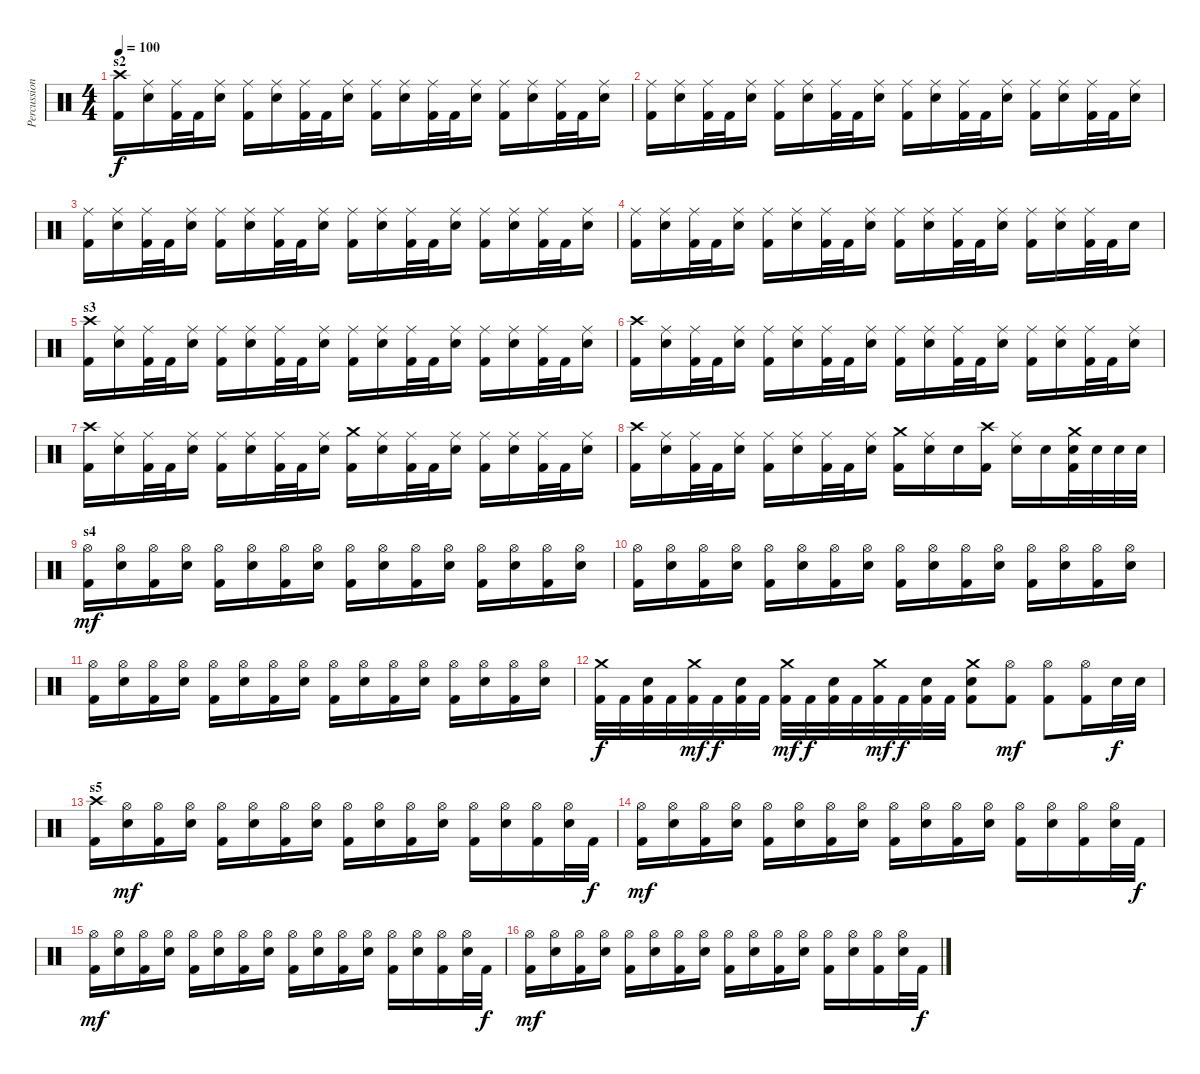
\track ("Percussion" "Percussion") {instrument percussion}
\staff {score}
\articulation defaults
\ts (4 4)
\section ("" "s2")
\tempo 100
\clef neutral
\ks c
("Crash high (hit)" "Kick (hit) 2").16{dy f} ("Ride (middle)" "Electric Snare (hit)").16 ("Ride (middle)" "Kick (hit) 2").32 "Kick (hit) 2".32 ("Ride (middle)" "Electric Snare (hit)").16 ("Ride (middle)" "Kick (hit) 2").16 ("Ride (middle)" "Electric Snare (hit)").16 ("Ride (middle)" "Kick (hit) 2").32 "Kick (hit) 2".32 ("Ride (middle)" "Electric Snare (hit)").16 ("Ride (middle)" "Kick (hit) 2").16 ("Ride (middle)" "Electric Snare (hit)").16 ("Ride (middle)" "Kick (hit) 2").32 "Kick (hit) 2".32 ("Ride (middle)" "Electric Snare (hit)").16 ("Ride (middle)" "Kick (hit) 2").16 ("Ride (middle)" "Electric Snare (hit)").16 ("Ride (middle)" "Kick (hit) 2").32 "Kick (hit) 2".32 ("Ride (middle)" "Electric Snare (hit)").16 |
("Ride (middle)" "Kick (hit) 2").16 ("Ride (middle)" "Electric Snare (hit)").16 ("Ride (middle)" "Kick (hit) 2").32 "Kick (hit) 2".32 ("Ride (middle)" "Electric Snare (hit)").16 ("Ride (middle)" "Kick (hit) 2").16 ("Ride (middle)" "Electric Snare (hit)").16 ("Ride (middle)" "Kick (hit) 2").32 "Kick (hit) 2".32 ("Ride (middle)" "Electric Snare (hit)").16 ("Ride (middle)" "Kick (hit) 2").16 ("Ride (middle)" "Electric Snare (hit)").16 ("Ride (middle)" "Kick (hit) 2").32 "Kick (hit) 2".32 ("Ride (middle)" "Electric Snare (hit)").16 ("Ride (middle)" "Kick (hit) 2").16 ("Ride (middle)" "Electric Snare (hit)").16 ("Ride (middle)" "Kick (hit) 2").32 "Kick (hit) 2".32 ("Ride (middle)" "Electric Snare (hit)").16 |
("Ride (middle)" "Kick (hit) 2").16 ("Ride (middle)" "Electric Snare (hit)").16 ("Ride (middle)" "Kick (hit) 2").32 "Kick (hit) 2".32 ("Ride (middle)" "Electric Snare (hit)").16 ("Ride (middle)" "Kick (hit) 2").16 ("Ride (middle)" "Electric Snare (hit)").16 ("Ride (middle)" "Kick (hit) 2").32 "Kick (hit) 2".32 ("Ride (middle)" "Electric Snare (hit)").16 ("Ride (middle)" "Kick (hit) 2").16 ("Ride (middle)" "Electric Snare (hit)").16 ("Ride (middle)" "Kick (hit) 2").32 "Kick (hit) 2".32 ("Ride (middle)" "Electric Snare (hit)").16 ("Ride (middle)" "Kick (hit) 2").16 ("Ride (middle)" "Electric Snare (hit)").16 ("Ride (middle)" "Kick (hit) 2").32 "Kick (hit) 2".32 ("Ride (middle)" "Electric Snare (hit)").16 |
("Ride (middle)" "Kick (hit) 2").16 ("Ride (middle)" "Electric Snare (hit)").16 ("Ride (middle)" "Kick (hit) 2").32 "Kick (hit) 2".32 ("Ride (middle)" "Electric Snare (hit)").16 ("Ride (middle)" "Kick (hit) 2").16 ("Ride (middle)" "Electric Snare (hit)").16 ("Ride (middle)" "Kick (hit) 2").32 "Kick (hit) 2".32 ("Ride (middle)" "Electric Snare (hit)").16 ("Ride (middle)" "Kick (hit) 2").16 ("Ride (middle)" "Electric Snare (hit)").16 ("Ride (middle)" "Kick (hit) 2").32 "Kick (hit) 2".32 ("Ride (middle)" "Electric Snare (hit)").16 ("Ride (middle)" "Kick (hit) 2").16 ("Ride (middle)" "Electric Snare (hit)").16 ("Ride (middle)" "Kick (hit) 2").32 "Kick (hit) 2".32 "Electric Snare (hit)".16 |
\section ("" "s3")
("Crash high (hit)" "Kick (hit) 2").16 ("Ride (middle)" "Electric Snare (hit)").16 ("Ride (middle)" "Kick (hit) 2").32 "Kick (hit) 2".32 ("Ride (middle)" "Electric Snare (hit)").16 ("Ride (middle)" "Kick (hit) 2").16 ("Ride (middle)" "Electric Snare (hit)").16 ("Ride (middle)" "Kick (hit) 2").32 "Kick (hit) 2".32 ("Ride (middle)" "Electric Snare (hit)").16 ("Ride (middle)" "Kick (hit) 2").16 ("Ride (middle)" "Electric Snare (hit)").16 ("Ride (middle)" "Kick (hit) 2").32 "Kick (hit) 2".32 ("Ride (middle)" "Electric Snare (hit)").16 ("Ride (middle)" "Kick (hit) 2").16 ("Ride (middle)" "Electric Snare (hit)").16 ("Ride (middle)" "Kick (hit) 2").32 "Kick (hit) 2".32 ("Ride (middle)" "Electric Snare (hit)").16 |
("Crash high (hit)" "Kick (hit) 2").16 ("Ride (middle)" "Electric Snare (hit)").16 ("Ride (middle)" "Kick (hit) 2").32 "Kick (hit) 2".32 ("Ride (middle)" "Electric Snare (hit)").16 ("Ride (middle)" "Kick (hit) 2").16 ("Ride (middle)" "Electric Snare (hit)").16 ("Ride (middle)" "Kick (hit) 2").32 "Kick (hit) 2".32 ("Ride (middle)" "Electric Snare (hit)").16 ("Ride (middle)" "Kick (hit) 2").16 ("Ride (middle)" "Electric Snare (hit)").16 ("Ride (middle)" "Kick (hit) 2").32 "Kick (hit) 2".32 ("Ride (middle)" "Electric Snare (hit)").16 ("Ride (middle)" "Kick (hit) 2").16 ("Ride (middle)" "Electric Snare (hit)").16 ("Ride (middle)" "Kick (hit) 2").32 "Kick (hit) 2".32 ("Ride (middle)" "Electric Snare (hit)").16 |
("Crash high (hit)" "Kick (hit) 2").16 ("Ride (middle)" "Electric Snare (hit)").16 ("Ride (middle)" "Kick (hit) 2").32 "Kick (hit) 2".32 ("Ride (middle)" "Electric Snare (hit)").16 ("Ride (middle)" "Kick (hit) 2").16 ("Ride (middle)" "Electric Snare (hit)").16 ("Ride (middle)" "Kick (hit) 2").32 "Kick (hit) 2".32 ("Ride (middle)" "Electric Snare (hit)").16 ("Crash medium (hit)" "Kick (hit) 2").16 ("Ride (middle)" "Electric Snare (hit)").16 ("Ride (middle)" "Kick (hit) 2").32 "Kick (hit) 2".32 ("Ride (middle)" "Electric Snare (hit)").16 ("Ride (middle)" "Kick (hit) 2").16 ("Ride (middle)" "Electric Snare (hit)").16 ("Ride (middle)" "Kick (hit) 2").32 "Kick (hit) 2".32 ("Ride (middle)" "Electric Snare (hit)").16 |
("Crash high (hit)" "Kick (hit) 2").16 ("Ride (middle)" "Electric Snare (hit)").16 ("Ride (middle)" "Kick (hit) 2").32 "Kick (hit) 2".32 ("Ride (middle)" "Electric Snare (hit)").16 ("Ride (middle)" "Kick (hit) 2").16 ("Ride (middle)" "Electric Snare (hit)").16 ("Ride (middle)" "Kick (hit) 2").32 "Kick (hit) 2".32 ("Ride (middle)" "Electric Snare (hit)").16 ("Crash medium (hit)" "Kick (hit) 2").16 ("Ride (middle)" "Electric Snare (hit)").16 "Electric Snare (hit)".16 ("Crash high (hit)" "Kick (hit) 2").16 ("Ride (middle)" "Electric Snare (hit)").16 "Electric Snare (hit)".16 ("Crash medium (hit)" "Electric Snare (hit)" "Kick (hit) 2").32 "Electric Snare (hit)".32 "Electric Snare (hit)".32 "Electric Snare (hit)".32 |
\section ("" "s4")
("Hi-Hat (open)" "Kick (hit) 2").16{dy mf} ("Hi-Hat (open)" "Electric Snare (hit)").16 ("Hi-Hat (open)" "Kick (hit) 2").16 ("Hi-Hat (open)" "Electric Snare (hit)").16 ("Hi-Hat (open)" "Kick (hit) 2").16 ("Hi-Hat (open)" "Electric Snare (hit)").16 ("Hi-Hat (open)" "Kick (hit) 2").16 ("Hi-Hat (open)" "Electric Snare (hit)").16 ("Hi-Hat (open)" "Kick (hit) 2").16 ("Hi-Hat (open)" "Electric Snare (hit)").16 ("Hi-Hat (open)" "Kick (hit) 2").16 ("Hi-Hat (open)" "Electric Snare (hit)").16 ("Hi-Hat (open)" "Kick (hit) 2").16 ("Hi-Hat (open)" "Electric Snare (hit)").16 ("Hi-Hat (open)" "Kick (hit) 2").16 ("Hi-Hat (open)" "Electric Snare (hit)").16 |
("Hi-Hat (open)" "Kick (hit) 2").16 ("Hi-Hat (open)" "Electric Snare (hit)").16 ("Hi-Hat (open)" "Kick (hit) 2").16 ("Hi-Hat (open)" "Electric Snare (hit)").16 ("Hi-Hat (open)" "Kick (hit) 2").16 ("Hi-Hat (open)" "Electric Snare (hit)").16 ("Hi-Hat (open)" "Kick (hit) 2").16 ("Hi-Hat (open)" "Electric Snare (hit)").16 ("Hi-Hat (open)" "Kick (hit) 2").16 ("Hi-Hat (open)" "Electric Snare (hit)").16 ("Hi-Hat (open)" "Kick (hit) 2").16 ("Hi-Hat (open)" "Electric Snare (hit)").16 ("Hi-Hat (open)" "Kick (hit) 2").16 ("Hi-Hat (open)" "Electric Snare (hit)").16 ("Hi-Hat (open)" "Kick (hit) 2").16 ("Hi-Hat (open)" "Electric Snare (hit)").16 |
("Hi-Hat (open)" "Kick (hit) 2").16 ("Hi-Hat (open)" "Electric Snare (hit)").16 ("Hi-Hat (open)" "Kick (hit) 2").16 ("Hi-Hat (open)" "Electric Snare (hit)").16 ("Hi-Hat (open)" "Kick (hit) 2").16 ("Hi-Hat (open)" "Electric Snare (hit)").16 ("Hi-Hat (open)" "Kick (hit) 2").16 ("Hi-Hat (open)" "Electric Snare (hit)").16 ("Hi-Hat (open)" "Kick (hit) 2").16 ("Hi-Hat (open)" "Electric Snare (hit)").16 ("Hi-Hat (open)" "Kick (hit) 2").16 ("Hi-Hat (open)" "Electric Snare (hit)").16 ("Hi-Hat (open)" "Kick (hit) 2").16 ("Hi-Hat (open)" "Electric Snare (hit)").16 ("Hi-Hat (open)" "Kick (hit) 2").16 ("Hi-Hat (open)" "Electric Snare (hit)").16 |
("Crash medium (hit)" "Kick (hit) 2").32{dy f} "Kick (hit) 2".32 ("Electric Snare (hit)" "Kick (hit) 2").32 "Kick (hit) 2".32 ("Crash medium (hit)" "Kick (hit) 2").32{dy mf} "Kick (hit) 2".32{dy f} ("Electric Snare (hit)" "Kick (hit) 2").32 "Kick (hit) 2".32 ("Crash medium (hit)" "Kick (hit) 2").32{dy mf} "Kick (hit) 2".32{dy f} ("Electric Snare (hit)" "Kick (hit) 2").32 "Kick (hit) 2".32 ("Crash medium (hit)" "Kick (hit) 2").32{dy mf} "Kick (hit) 2".32{dy f} ("Electric Snare (hit)" "Kick (hit) 2").32 "Kick (hit) 2".32 ("Crash medium (hit)" "Electric Snare (hit)" "Kick (hit) 2").8 ("Hi-Hat (open)" "Kick (hit) 2").8{dy mf} ("Hi-Hat (open)" "Kick (hit) 2").8 ("Hi-Hat (open)" "Kick (hit) 2").16 "Electric Snare (hit)".32{dy f} "Electric Snare (hit)".32 |
\section ("" "s5")
("Crash high (hit)" "Kick (hit) 2").16 ("Hi-Hat (open)" "Electric Snare (hit)").16{dy mf} ("Hi-Hat (open)" "Kick (hit) 2").16 ("Hi-Hat (open)" "Electric Snare (hit)").16 ("Hi-Hat (open)" "Kick (hit) 2").16 ("Hi-Hat (open)" "Electric Snare (hit)").16 ("Hi-Hat (open)" "Kick (hit) 2").16 ("Hi-Hat (open)" "Electric Snare (hit)").16 ("Hi-Hat (open)" "Kick (hit) 2").16 ("Hi-Hat (open)" "Electric Snare (hit)").16 ("Hi-Hat (open)" "Kick (hit) 2").16 ("Hi-Hat (open)" "Electric Snare (hit)").16 ("Hi-Hat (open)" "Kick (hit) 2").16 ("Hi-Hat (open)" "Electric Snare (hit)").16 ("Hi-Hat (open)" "Kick (hit) 2").16 ("Hi-Hat (open)" "Electric Snare (hit)").32 "Kick (hit) 2".32{dy f} |
("Hi-Hat (open)" "Kick (hit) 2").16{dy mf} ("Hi-Hat (open)" "Electric Snare (hit)").16 ("Hi-Hat (open)" "Kick (hit) 2").16 ("Hi-Hat (open)" "Electric Snare (hit)").16 ("Hi-Hat (open)" "Kick (hit) 2").16 ("Hi-Hat (open)" "Electric Snare (hit)").16 ("Hi-Hat (open)" "Kick (hit) 2").16 ("Hi-Hat (open)" "Electric Snare (hit)").16 ("Hi-Hat (open)" "Kick (hit) 2").16 ("Hi-Hat (open)" "Electric Snare (hit)").16 ("Hi-Hat (open)" "Kick (hit) 2").16 ("Hi-Hat (open)" "Electric Snare (hit)").16 ("Hi-Hat (open)" "Kick (hit) 2").16 ("Hi-Hat (open)" "Electric Snare (hit)").16 ("Hi-Hat (open)" "Kick (hit) 2").16 ("Hi-Hat (open)" "Electric Snare (hit)").32 "Kick (hit) 2".32{dy f} |
("Hi-Hat (open)" "Kick (hit) 2").16{dy mf} ("Hi-Hat (open)" "Electric Snare (hit)").16 ("Hi-Hat (open)" "Kick (hit) 2").16 ("Hi-Hat (open)" "Electric Snare (hit)").16 ("Hi-Hat (open)" "Kick (hit) 2").16 ("Hi-Hat (open)" "Electric Snare (hit)").16 ("Hi-Hat (open)" "Kick (hit) 2").16 ("Hi-Hat (open)" "Electric Snare (hit)").16 ("Hi-Hat (open)" "Kick (hit) 2").16 ("Hi-Hat (open)" "Electric Snare (hit)").16 ("Hi-Hat (open)" "Kick (hit) 2").16 ("Hi-Hat (open)" "Electric Snare (hit)").16 ("Hi-Hat (open)" "Kick (hit) 2").16 ("Hi-Hat (open)" "Electric Snare (hit)").16 ("Hi-Hat (open)" "Kick (hit) 2").16 ("Hi-Hat (open)" "Electric Snare (hit)").32 "Kick (hit) 2".32{dy f} |
("Hi-Hat (open)" "Kick (hit) 2").16{dy mf} ("Hi-Hat (open)" "Electric Snare (hit)").16 ("Hi-Hat (open)" "Kick (hit) 2").16 ("Hi-Hat (open)" "Electric Snare (hit)").16 ("Hi-Hat (open)" "Kick (hit) 2").16 ("Hi-Hat (open)" "Electric Snare (hit)").16 ("Hi-Hat (open)" "Kick (hit) 2").16 ("Hi-Hat (open)" "Electric Snare (hit)").16 ("Hi-Hat (open)" "Kick (hit) 2").16 ("Hi-Hat (open)" "Electric Snare (hit)").16 ("Hi-Hat (open)" "Kick (hit) 2").16 ("Hi-Hat (open)" "Electric Snare (hit)").16 ("Hi-Hat (open)" "Kick (hit) 2").16 ("Hi-Hat (open)" "Electric Snare (hit)").16 ("Hi-Hat (open)" "Kick (hit) 2").16 ("Hi-Hat (open)" "Electric Snare (hit)").32 "Kick (hit) 2".32{dy f}
